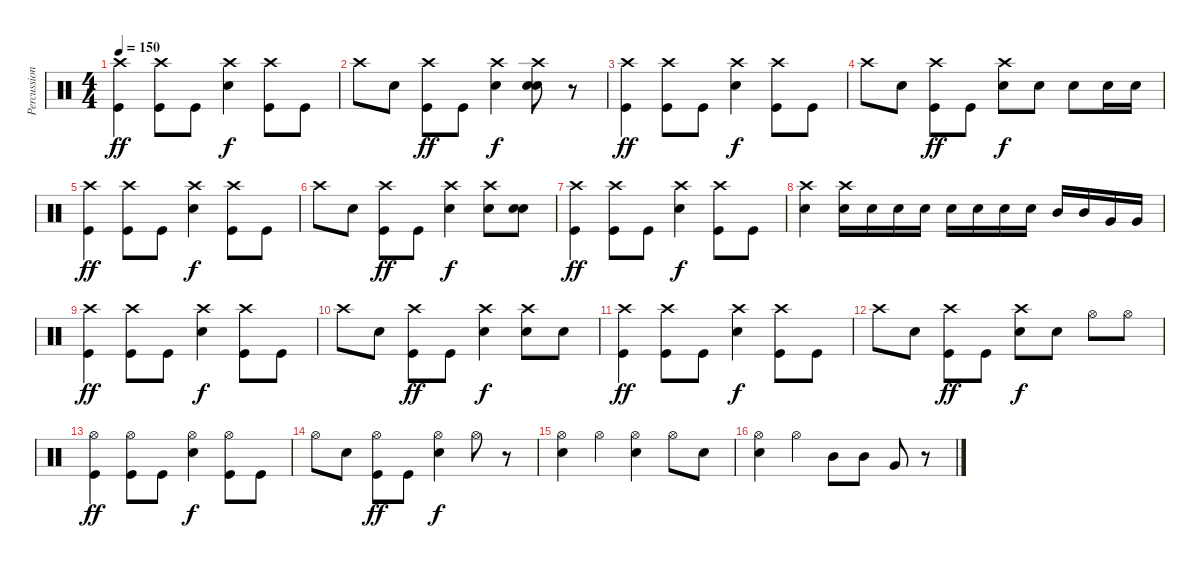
\track ("Percussion" "Percussion") {instrument percussion}
\staff {score}
\articulation defaults
\ts (4 4)
\tempo 150
\clef neutral
\ks c
("Crash high (hit)" "Kick (hit)").4{dy ff} ("Crash high (hit)" "Kick (hit)").8 "Kick (hit)".8 ("Crash high (hit)" "Snare (hit) 2").4{dy f} ("Crash high (hit)" "Kick (hit)").8 "Kick (hit)".8 |
"Crash high (hit)".8 "Snare (hit) 2".8 ("Crash high (hit)" "Kick (hit)").8{dy ff} "Kick (hit)".8 ("Crash high (hit)" "Snare (hit) 2").4{dy f} ("Crash high (hit)" "Snare (hit) 2" "Snare (hit) 2").8 r.8 |
("Crash high (hit)" "Kick (hit)").4{dy ff} ("Crash high (hit)" "Kick (hit)").8 "Kick (hit)".8 ("Crash high (hit)" "Snare (hit) 2").4{dy f} ("Crash high (hit)" "Kick (hit)").8 "Kick (hit)".8 |
"Crash high (hit)".8 "Snare (hit) 2".8 ("Crash high (hit)" "Kick (hit)").8{dy ff} "Kick (hit)".8 ("Crash high (hit)" "Snare (hit) 2").8{dy f} "Snare (hit) 2".8 "Snare (hit) 2".8 "Snare (hit) 2".16 "Snare (hit) 2".16 |
("Crash high (hit)" "Kick (hit)").4{dy ff} ("Crash high (hit)" "Kick (hit)").8 "Kick (hit)".8 ("Crash high (hit)" "Snare (hit) 2").4{dy f} ("Crash high (hit)" "Kick (hit)").8 "Kick (hit)".8 |
"Crash high (hit)".8 "Snare (hit) 2".8 ("Crash high (hit)" "Kick (hit)").8{dy ff} "Kick (hit)".8 ("Crash high (hit)" "Snare (hit) 2").4{dy f} ("Crash high (hit)" "Snare (hit) 2").8 ("Snare (hit) 2" "Snare (hit) 2").8 |
("Crash high (hit)" "Kick (hit)").4{dy ff} ("Crash high (hit)" "Kick (hit)").8 "Kick (hit)".8 ("Crash high (hit)" "Snare (hit) 2").4{dy f} ("Crash high (hit)" "Kick (hit)").8 "Kick (hit)".8 |
("Crash high (hit)" "Snare (hit) 2").4 ("Crash high (hit)" "Snare (hit) 2").16 "Snare (hit) 2".16 "Snare (hit) 2".16 "Snare (hit) 2".16 "Snare (hit) 2".16 "Snare (hit) 2".16 "Snare (hit) 2".16 "Snare (hit) 2".16 "Mid Tom (hit)".16 "Mid Tom (hit)".16 "Very Low Tom (hit)".16 "Very Low Tom (hit)".16 |
("Crash high (hit)" "Kick (hit)").4{dy ff} ("Crash high (hit)" "Kick (hit)").8 "Kick (hit)".8 ("Crash high (hit)" "Snare (hit) 2").4{dy f} ("Crash high (hit)" "Kick (hit)").8 "Kick (hit)".8 |
"Crash high (hit)".8 "Snare (hit) 2".8 ("Crash high (hit)" "Kick (hit)").8{dy ff} "Kick (hit)".8 ("Crash high (hit)" "Snare (hit) 2").4{dy f} ("Crash high (hit)" "Snare (hit) 2").8 "Snare (hit) 2".8 |
("Crash high (hit)" "Kick (hit)").4{dy ff} ("Crash high (hit)" "Kick (hit)").8 "Kick (hit)".8 ("Crash high (hit)" "Snare (hit) 2").4{dy f} ("Crash high (hit)" "Kick (hit)").8 "Kick (hit)".8 |
"Crash high (hit)".8 "Snare (hit) 2".8 ("Crash high (hit)" "Kick (hit)").8{dy ff} "Kick (hit)".8 ("Crash high (hit)" "Snare (hit) 2").8{dy f} "Snare (hit) 2".8 "Hi-Hat (open)".8 "Hi-Hat (open)".8 |
("Hi-Hat (open)" "Kick (hit)").4{dy ff} ("Hi-Hat (open)" "Kick (hit)").8 "Kick (hit)".8 ("Hi-Hat (open)" "Snare (hit) 2").4{dy f} ("Hi-Hat (open)" "Kick (hit)").8 "Kick (hit)".8 |
"Hi-Hat (open)".8 "Snare (hit) 2".8 ("Hi-Hat (open)" "Kick (hit)").8{dy ff} "Kick (hit)".8 ("Hi-Hat (open)" "Snare (hit) 2").4{dy f} "Hi-Hat (open)".8 r.8 |
("Hi-Hat (open)" "Snare (hit) 2").4 "Hi-Hat (open)".4 ("Hi-Hat (open)" "Snare (hit) 2").4 "Hi-Hat (open)".8 "Snare (hit) 2".8 |
("Hi-Hat (open)" "Snare (hit) 2").4 "Hi-Hat (open)".4 "Mid Tom (hit)".8 "Mid Tom (hit)".8 "Very Low Tom (hit)".8 r.8
